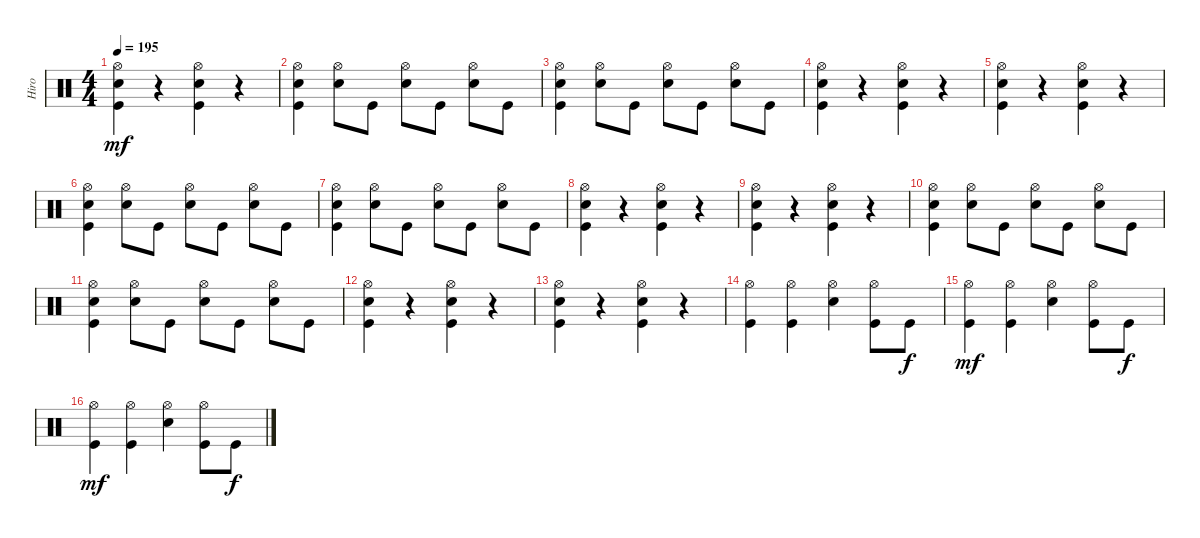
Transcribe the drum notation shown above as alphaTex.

\track ("Hiro" "Hiro") {instrument percussion}
\staff {score}
\articulation defaults
\ts (4 4)
\tempo 195
\clef neutral
\ks c
("Hi-Hat (open)" "Kick (hit)" "Snare (hit) 2").4{dy mf} r.4 ("Hi-Hat (open)" "Kick (hit)" "Snare (hit) 2").4 r.4 |
("Hi-Hat (open)" "Kick (hit)" "Snare (hit) 2").4 ("Hi-Hat (open)" "Snare (hit) 2").8 "Kick (hit)".8 ("Hi-Hat (open)" "Snare (hit) 2").8 "Kick (hit)".8 ("Hi-Hat (open)" "Snare (hit) 2").8 "Kick (hit)".8 |
("Snare (hit) 2" "Kick (hit)" "Hi-Hat (open)").4 ("Snare (hit) 2" "Hi-Hat (open)").8 "Kick (hit)".8 ("Snare (hit) 2" "Hi-Hat (open)").8 "Kick (hit)".8 ("Snare (hit) 2" "Hi-Hat (open)").8 "Kick (hit)".8 |
("Snare (hit) 2" "Kick (hit)" "Hi-Hat (open)").4 r.4 ("Snare (hit) 2" "Kick (hit)" "Hi-Hat (open)").4 r.4 |
("Snare (hit) 2" "Kick (hit)" "Hi-Hat (open)").4 r.4 ("Snare (hit) 2" "Kick (hit)" "Hi-Hat (open)").4 r.4 |
("Hi-Hat (open)" "Kick (hit)" "Snare (hit) 2").4 ("Hi-Hat (open)" "Snare (hit) 2").8 "Kick (hit)".8 ("Hi-Hat (open)" "Snare (hit) 2").8 "Kick (hit)".8 ("Hi-Hat (open)" "Snare (hit) 2").8 "Kick (hit)".8 |
("Snare (hit) 2" "Kick (hit)" "Hi-Hat (open)").4 ("Snare (hit) 2" "Hi-Hat (open)").8 "Kick (hit)".8 ("Snare (hit) 2" "Hi-Hat (open)").8 "Kick (hit)".8 ("Snare (hit) 2" "Hi-Hat (open)").8 "Kick (hit)".8 |
("Snare (hit) 2" "Kick (hit)" "Hi-Hat (open)").4 r.4 ("Snare (hit) 2" "Kick (hit)" "Hi-Hat (open)").4 r.4 |
("Snare (hit) 2" "Kick (hit)" "Hi-Hat (open)").4 r.4 ("Snare (hit) 2" "Kick (hit)" "Hi-Hat (open)").4 r.4 |
("Snare (hit) 2" "Kick (hit)" "Hi-Hat (open)").4 ("Snare (hit) 2" "Hi-Hat (open)").8 "Kick (hit)".8 ("Snare (hit) 2" "Hi-Hat (open)").8 "Kick (hit)".8 ("Snare (hit) 2" "Hi-Hat (open)").8 "Kick (hit)".8 |
("Hi-Hat (open)" "Kick (hit)" "Snare (hit) 2").4 ("Hi-Hat (open)" "Snare (hit) 2").8 "Kick (hit)".8 ("Hi-Hat (open)" "Snare (hit) 2").8 "Kick (hit)".8 ("Hi-Hat (open)" "Snare (hit) 2").8 "Kick (hit)".8 |
("Hi-Hat (open)" "Kick (hit)" "Snare (hit) 2").4 r.4 ("Hi-Hat (open)" "Kick (hit)" "Snare (hit) 2").4 r.4 |
("Hi-Hat (open)" "Kick (hit)" "Snare (hit) 2").4 r.4 ("Hi-Hat (open)" "Kick (hit)" "Snare (hit) 2").4 r.4 |
("Hi-Hat (open)" "Kick (hit)").4 ("Hi-Hat (open)" "Kick (hit)").4 ("Hi-Hat (open)" "Snare (hit) 2").4 ("Hi-Hat (open)" "Kick (hit)").8 "Kick (hit)".8{dy f} |
("Hi-Hat (open)" "Kick (hit)").4{dy mf} ("Hi-Hat (open)" "Kick (hit)").4 ("Snare (hit) 2" "Hi-Hat (open)").4 ("Hi-Hat (open)" "Kick (hit)").8 "Kick (hit)".8{dy f} |
("Kick (hit)" "Hi-Hat (open)").4{dy mf} ("Kick (hit)" "Hi-Hat (open)").4 ("Snare (hit) 2" "Hi-Hat (open)").4 ("Kick (hit)" "Hi-Hat (open)").8 "Kick (hit)".8{dy f}
